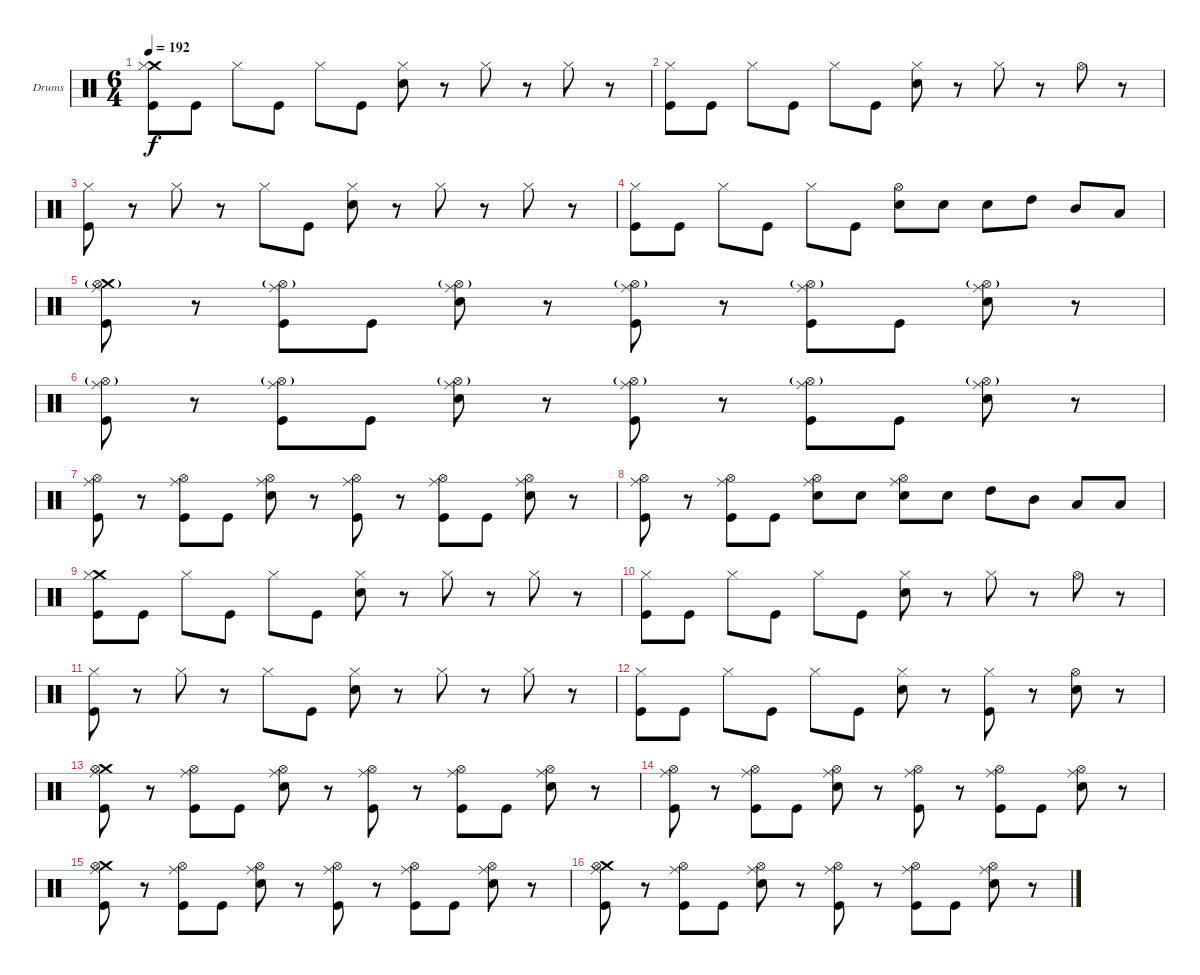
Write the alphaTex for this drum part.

\bracketExtendMode groupsimilarinstruments
\firstSystemTrackNameOrientation horizontal
\otherSystemsTrackNameOrientation horizontal
\track ("Drumkit" "Drums") {instrument percussion}
\staff {score}
\articulation defaults
\ts (6 4)
\tempo 192
\clef neutral
\ks c
("Crash medium (hit)" "Hi-Hat (closed)" "Kick (hit)").8{dy f} "Kick (hit)".8 "Hi-Hat (closed)".8 "Kick (hit)".8 "Hi-Hat (closed)".8 "Kick (hit)".8 ("Hi-Hat (closed)" "Snare (hit) 2").8 r.8 "Hi-Hat (closed)".8 r.8 "Hi-Hat (closed)".8 r.8 |
("Hi-Hat (closed)" "Kick (hit)").8 "Kick (hit)".8 "Hi-Hat (closed)".8 "Kick (hit)".8 "Hi-Hat (closed)".8 "Kick (hit)".8 ("Hi-Hat (closed)" "Snare (hit) 2").8 r.8 "Hi-Hat (closed)".8 r.8 "Hi-Hat (open)".8 r.8 |
("Hi-Hat (closed)" "Kick (hit)").8 r.8 "Hi-Hat (closed)".8 r.8 "Hi-Hat (closed)".8 "Kick (hit)".8 ("Hi-Hat (closed)" "Snare (hit) 2").8 r.8 "Hi-Hat (closed)".8 r.8 "Hi-Hat (closed)".8 r.8 |
("Hi-Hat (closed)" "Kick (hit)").8 "Kick (hit)".8 "Hi-Hat (closed)".8 "Kick (hit)".8 "Hi-Hat (closed)".8 "Kick (hit)".8 ("Hi-Hat (open)" "Snare (hit) 2").8 "Snare (hit) 2".8 "Snare (hit) 2".8 "High Tom (hit)".8 "Mid Tom (hit)".8 "Low Tom (hit)".8 |
("Crash medium (hit)" "Ride (middle)" "Hi-Hat (open)"{g} "Kick (hit)").8 r.8 ("Ride (middle)" "Hi-Hat (open)"{g} "Kick (hit)").8 "Kick (hit)".8 ("Ride (middle)" "Hi-Hat (open)"{g} "Snare (hit) 2").8 r.8 ("Ride (middle)" "Hi-Hat (open)"{g} "Kick (hit)").8 r.8 ("Ride (middle)" "Hi-Hat (open)"{g} "Kick (hit)").8 "Kick (hit)".8 ("Ride (middle)" "Hi-Hat (open)"{g} "Snare (hit) 2").8 r.8 |
("Ride (middle)" "Hi-Hat (open)"{g} "Kick (hit)").8 r.8 ("Ride (middle)" "Hi-Hat (open)"{g} "Kick (hit)").8 "Kick (hit)".8 ("Ride (middle)" "Hi-Hat (open)"{g} "Snare (hit) 2").8 r.8 ("Ride (middle)" "Hi-Hat (open)"{g} "Kick (hit)").8 r.8 ("Ride (middle)" "Hi-Hat (open)"{g} "Kick (hit)").8 "Kick (hit)".8 ("Ride (middle)" "Hi-Hat (open)"{g} "Snare (hit) 2").8 r.8 |
("Ride (middle)" "Hi-Hat (open)" "Kick (hit)").8 r.8 ("Ride (middle)" "Hi-Hat (open)" "Kick (hit)").8 "Kick (hit)".8 ("Ride (middle)" "Hi-Hat (open)" "Snare (hit) 2").8 r.8 ("Ride (middle)" "Hi-Hat (open)" "Kick (hit)").8 r.8 ("Ride (middle)" "Hi-Hat (open)" "Kick (hit)").8 "Kick (hit)".8 ("Ride (middle)" "Hi-Hat (open)" "Snare (hit) 2").8 r.8 |
("Ride (middle)" "Hi-Hat (open)" "Kick (hit)").8 r.8 ("Ride (middle)" "Hi-Hat (open)" "Kick (hit)").8 "Kick (hit)".8 ("Ride (middle)" "Hi-Hat (open)" "Snare (hit) 2").8 "Snare (hit) 2".8 ("Ride (middle)" "Hi-Hat (open)" "Snare (hit) 2").8 "Snare (hit) 2".8 "High Tom (hit)".8 "Mid Tom (hit)".8 "Low Tom (hit)".8 "Low Tom (hit)".8 |
("Crash medium (hit)" "Hi-Hat (closed)" "Kick (hit)").8 "Kick (hit)".8 "Hi-Hat (closed)".8 "Kick (hit)".8 "Hi-Hat (closed)".8 "Kick (hit)".8 ("Hi-Hat (closed)" "Snare (hit) 2").8 r.8 "Hi-Hat (closed)".8 r.8 "Hi-Hat (closed)".8 r.8 |
("Hi-Hat (closed)" "Kick (hit)").8 "Kick (hit)".8 "Hi-Hat (closed)".8 "Kick (hit)".8 "Hi-Hat (closed)".8 "Kick (hit)".8 ("Hi-Hat (closed)" "Snare (hit) 2").8 r.8 "Hi-Hat (closed)".8 r.8 "Hi-Hat (open)".8 r.8 |
("Hi-Hat (closed)" "Kick (hit)").8 r.8 "Hi-Hat (closed)".8 r.8 "Hi-Hat (closed)".8 "Kick (hit)".8 ("Hi-Hat (closed)" "Snare (hit) 2").8 r.8 "Hi-Hat (closed)".8 r.8 "Hi-Hat (closed)".8 r.8 |
("Hi-Hat (closed)" "Kick (hit)").8 "Kick (hit)".8 "Hi-Hat (closed)".8 "Kick (hit)".8 "Hi-Hat (closed)".8 "Kick (hit)".8 ("Hi-Hat (closed)" "Snare (hit) 2").8 r.8 ("Hi-Hat (closed)" "Kick (hit)").8 r.8 ("Hi-Hat (open)" "Snare (hit) 2").8 r.8 |
("Crash medium (hit)" "Ride (middle)" "Hi-Hat (open)" "Kick (hit)").8 r.8 ("Ride (middle)" "Hi-Hat (open)" "Kick (hit)").8 "Kick (hit)".8 ("Ride (middle)" "Hi-Hat (open)" "Snare (hit) 2").8 r.8 ("Ride (middle)" "Hi-Hat (open)" "Kick (hit)").8 r.8 ("Ride (middle)" "Hi-Hat (open)" "Kick (hit)").8 "Kick (hit)".8 ("Ride (middle)" "Hi-Hat (open)" "Snare (hit) 2").8 r.8 |
("Ride (middle)" "Hi-Hat (open)" "Kick (hit)").8 r.8 ("Ride (middle)" "Hi-Hat (open)" "Kick (hit)").8 "Kick (hit)".8 ("Ride (middle)" "Hi-Hat (open)" "Snare (hit) 2").8 r.8 ("Ride (middle)" "Hi-Hat (open)" "Kick (hit)").8 r.8 ("Ride (middle)" "Hi-Hat (open)" "Kick (hit)").8 "Kick (hit)".8 ("Ride (middle)" "Hi-Hat (open)" "Snare (hit) 2").8 r.8 |
("Crash medium (hit)" "Ride (middle)" "Hi-Hat (open)" "Kick (hit)").8 r.8 ("Ride (middle)" "Hi-Hat (open)" "Kick (hit)").8 "Kick (hit)".8 ("Ride (middle)" "Hi-Hat (open)" "Snare (hit) 2").8 r.8 ("Ride (middle)" "Hi-Hat (open)" "Kick (hit)").8 r.8 ("Ride (middle)" "Hi-Hat (open)" "Kick (hit)").8 "Kick (hit)".8 ("Ride (middle)" "Hi-Hat (open)" "Snare (hit) 2").8 r.8 |
("Crash medium (hit)" "Ride (middle)" "Hi-Hat (open)" "Kick (hit)").8 r.8 ("Ride (middle)" "Hi-Hat (open)" "Kick (hit)").8 "Kick (hit)".8 ("Ride (middle)" "Hi-Hat (open)" "Snare (hit) 2").8 r.8 ("Ride (middle)" "Hi-Hat (open)" "Kick (hit)").8 r.8 ("Ride (middle)" "Hi-Hat (open)" "Kick (hit)").8 "Kick (hit)".8 ("Ride (middle)" "Hi-Hat (open)" "Snare (hit) 2").8 r.8
